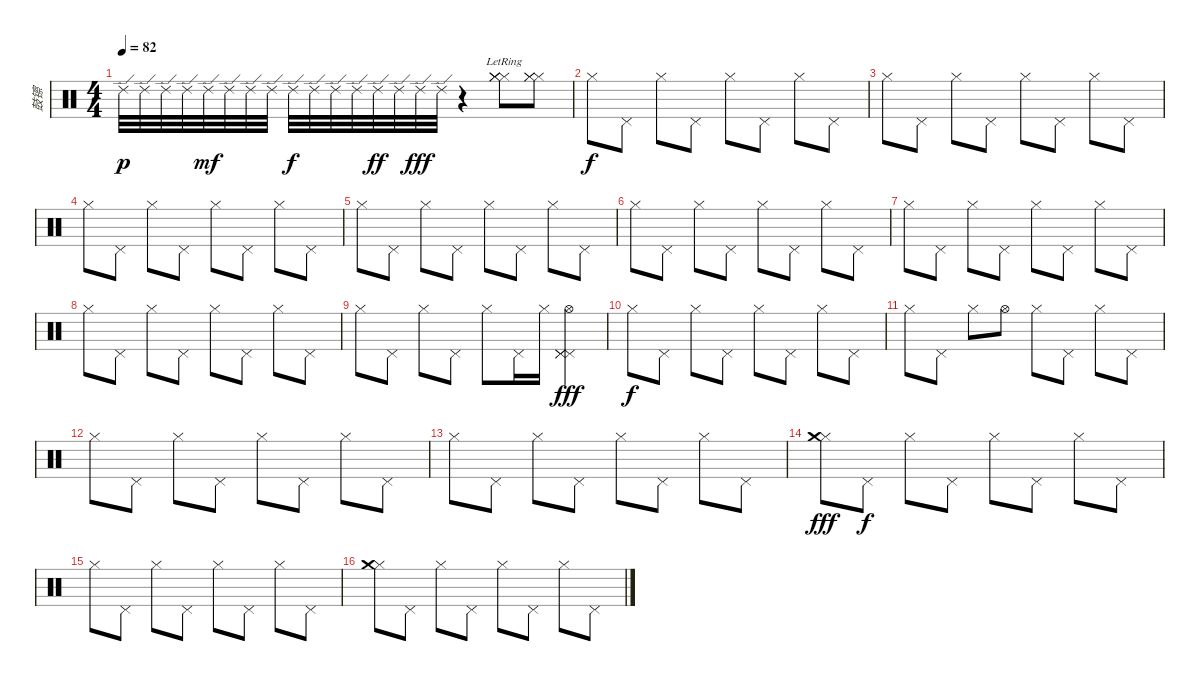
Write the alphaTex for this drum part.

\track ("鼓镲" "鼓镲") {instrument percussion}
\staff {score}
\articulation defaults
\ts (4 4)
\tempo 82
\clef neutral
\ks c "Ride (edge) 2".32{dy p} "Ride (edge) 2".32 "Ride (edge) 2".32 "Ride (edge) 2".32 "Ride (edge) 2".32{dy mf} "Ride (edge) 2".32 "Ride (edge) 2".32 "Ride (edge) 2".32 "Ride (edge) 2".32{dy f} "Ride (edge) 2".32 "Ride (edge) 2".32 "Ride (edge) 2".32 "Ride (edge) 2".32{dy ff} "Ride (edge) 2".32 "Ride (edge) 2".32{dy fff} "Ride (edge) 2".32
r.4 ("Hi-Hat (closed)"{lr} "Hi-Hat (closed)"{lr} "Hi-Hat (closed)"{lr} "Hi-Hat (closed)"{lr}).8 ("Hi-Hat (closed)"{lr} "Hi-Hat (closed)"{lr} "Hi-Hat (closed)"{lr}).8 |
"Hi-Hat (closed)".8{dy f} "Pedal Hi-Hat (hit)".8 "Hi-Hat (closed)".8 "Pedal Hi-Hat (hit)".8 "Hi-Hat (closed)".8 "Pedal Hi-Hat (hit)".8 "Hi-Hat (closed)".8 "Pedal Hi-Hat (hit)".8 |
"Hi-Hat (closed)".8 "Pedal Hi-Hat (hit)".8 "Hi-Hat (closed)".8 "Pedal Hi-Hat (hit)".8 "Hi-Hat (closed)".8 "Pedal Hi-Hat (hit)".8 "Hi-Hat (closed)".8 "Pedal Hi-Hat (hit)".8 |
"Hi-Hat (closed)".8 "Pedal Hi-Hat (hit)".8 "Hi-Hat (closed)".8 "Pedal Hi-Hat (hit)".8 "Hi-Hat (closed)".8 "Pedal Hi-Hat (hit)".8 "Hi-Hat (closed)".8 "Pedal Hi-Hat (hit)".8 |
"Hi-Hat (closed)".8 "Pedal Hi-Hat (hit)".8 "Hi-Hat (closed)".8 "Pedal Hi-Hat (hit)".8 "Hi-Hat (closed)".8 "Pedal Hi-Hat (hit)".8 "Hi-Hat (closed)".8 "Pedal Hi-Hat (hit)".8 |
"Hi-Hat (closed)".8 "Pedal Hi-Hat (hit)".8 "Hi-Hat (closed)".8 "Pedal Hi-Hat (hit)".8 "Hi-Hat (closed)".8 "Pedal Hi-Hat (hit)".8 "Hi-Hat (closed)".8 "Pedal Hi-Hat (hit)".8 |
"Hi-Hat (closed)".8 "Pedal Hi-Hat (hit)".8 "Hi-Hat (closed)".8 "Pedal Hi-Hat (hit)".8 "Hi-Hat (closed)".8 "Pedal Hi-Hat (hit)".8 "Hi-Hat (closed)".8 "Pedal Hi-Hat (hit)".8 |
"Hi-Hat (closed)".8 "Pedal Hi-Hat (hit)".8 "Hi-Hat (closed)".8 "Pedal Hi-Hat (hit)".8 "Hi-Hat (closed)".8 "Pedal Hi-Hat (hit)".8 "Hi-Hat (closed)".8 "Pedal Hi-Hat (hit)".8 |
"Hi-Hat (closed)".8 "Pedal Hi-Hat (hit)".8 "Hi-Hat (closed)".8 "Pedal Hi-Hat (hit)".8 "Hi-Hat (closed)".8 "Pedal Hi-Hat (hit)".16 "Hi-Hat (closed)".16 ("Pedal Hi-Hat (hit)" "Pedal Hi-Hat (hit)" "Pedal Hi-Hat (hit)" "Hi-Hat (open)").4{dy fff} |
"Hi-Hat (closed)".8{dy f} "Pedal Hi-Hat (hit)".8 "Hi-Hat (closed)".8 "Pedal Hi-Hat (hit)".8 "Hi-Hat (closed)".8 "Pedal Hi-Hat (hit)".8 "Hi-Hat (closed)".8 "Pedal Hi-Hat (hit)".8 |
"Hi-Hat (closed)".8 "Pedal Hi-Hat (hit)".8 "Hi-Hat (closed)".8 "Hi-Hat (open)".8 "Hi-Hat (closed)".8 "Pedal Hi-Hat (hit)".8 "Hi-Hat (closed)".8 "Pedal Hi-Hat (hit)".8 |
"Hi-Hat (closed)".8 "Pedal Hi-Hat (hit)".8 "Hi-Hat (closed)".8 "Pedal Hi-Hat (hit)".8 "Hi-Hat (closed)".8 "Pedal Hi-Hat (hit)".8 "Hi-Hat (closed)".8 "Pedal Hi-Hat (hit)".8 |
"Hi-Hat (closed)".8 "Pedal Hi-Hat (hit)".8 "Hi-Hat (closed)".8 "Pedal Hi-Hat (hit)".8 "Hi-Hat (closed)".8 "Pedal Hi-Hat (hit)".8 "Hi-Hat (closed)".8 "Pedal Hi-Hat (hit)".8 |
("Hi-Hat (closed)" "Crash medium (hit)").8{dy fff} "Pedal Hi-Hat (hit)".8{dy f} "Hi-Hat (closed)".8 "Pedal Hi-Hat (hit)".8 "Hi-Hat (closed)".8 "Pedal Hi-Hat (hit)".8 "Hi-Hat (closed)".8 "Pedal Hi-Hat (hit)".8 |
"Hi-Hat (closed)".8 "Pedal Hi-Hat (hit)".8 "Hi-Hat (closed)".8 "Pedal Hi-Hat (hit)".8 "Hi-Hat (closed)".8 "Pedal Hi-Hat (hit)".8 "Hi-Hat (closed)".8 "Pedal Hi-Hat (hit)".8 |
("Hi-Hat (closed)" "Crash medium (hit)").8 "Pedal Hi-Hat (hit)".8 "Hi-Hat (closed)".8 "Pedal Hi-Hat (hit)".8 "Hi-Hat (closed)".8 "Pedal Hi-Hat (hit)".8 "Hi-Hat (closed)".8 "Pedal Hi-Hat (hit)".8
